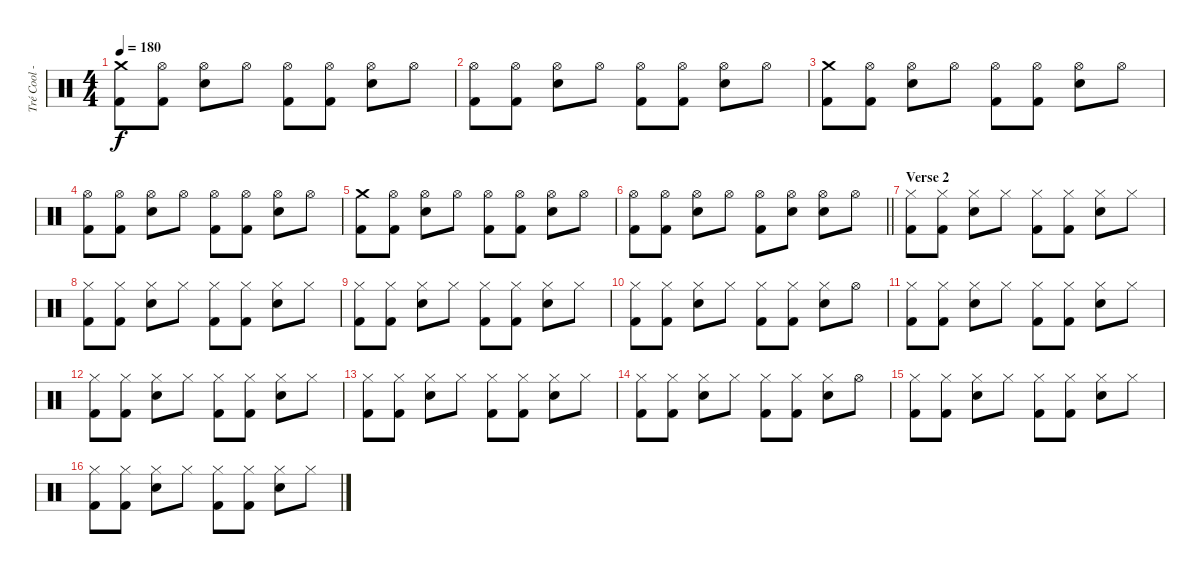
\track ("Tré Cool - Drums" "Tré Cool -") {instrument percussion}
\staff {score}
\articulation defaults
\ts (4 4)
\tempo 180
\clef neutral
\ks c
("Crash medium (hit)" "Kick (hit) 2").8{dy f} ("Hi-Hat (open)" "Kick (hit) 2").8 ("Hi-Hat (open)" "Electric Snare (hit)").8 "Hi-Hat (open)".8 ("Hi-Hat (open)" "Kick (hit) 2").8 ("Hi-Hat (open)" "Kick (hit) 2").8 ("Hi-Hat (open)" "Electric Snare (hit)").8 "Hi-Hat (open)".8 |
("Hi-Hat (open)" "Kick (hit) 2").8 ("Hi-Hat (open)" "Kick (hit) 2").8 ("Hi-Hat (open)" "Electric Snare (hit)").8 "Hi-Hat (open)".8 ("Hi-Hat (open)" "Kick (hit) 2").8 ("Hi-Hat (open)" "Kick (hit) 2").8 ("Hi-Hat (open)" "Electric Snare (hit)").8 "Hi-Hat (open)".8 |
("Crash medium (hit)" "Kick (hit) 2").8 ("Hi-Hat (open)" "Kick (hit) 2").8 ("Hi-Hat (open)" "Electric Snare (hit)").8 "Hi-Hat (open)".8 ("Hi-Hat (open)" "Kick (hit) 2").8 ("Hi-Hat (open)" "Kick (hit) 2").8 ("Hi-Hat (open)" "Electric Snare (hit)").8 "Hi-Hat (open)".8 |
("Hi-Hat (open)" "Kick (hit) 2").8 ("Hi-Hat (open)" "Kick (hit) 2").8 ("Hi-Hat (open)" "Electric Snare (hit)").8 "Hi-Hat (open)".8 ("Hi-Hat (open)" "Kick (hit) 2").8 ("Hi-Hat (open)" "Kick (hit) 2").8 ("Hi-Hat (open)" "Electric Snare (hit)").8 "Hi-Hat (open)".8 |
("Crash medium (hit)" "Kick (hit) 2").8 ("Hi-Hat (open)" "Kick (hit) 2").8 ("Hi-Hat (open)" "Electric Snare (hit)").8 "Hi-Hat (open)".8 ("Hi-Hat (open)" "Kick (hit) 2").8 ("Hi-Hat (open)" "Kick (hit) 2").8 ("Hi-Hat (open)" "Electric Snare (hit)").8 "Hi-Hat (open)".8 |
\barLineRight lightlight
("Hi-Hat (open)" "Kick (hit) 2").8 ("Hi-Hat (open)" "Kick (hit) 2").8 ("Hi-Hat (open)" "Electric Snare (hit)").8 "Hi-Hat (open)".8 ("Hi-Hat (open)" "Kick (hit) 2").8 ("Hi-Hat (open)" "Electric Snare (hit)").8 ("Hi-Hat (open)" "Electric Snare (hit)").8 "Hi-Hat (open)".8 |
\section ("" "Verse 2")
("Hi-Hat (closed)" "Kick (hit) 2").8{volume 9 balance 3} ("Hi-Hat (closed)" "Kick (hit) 2").8 ("Hi-Hat (closed)" "Electric Snare (hit)").8 "Hi-Hat (closed)".8 ("Hi-Hat (closed)" "Kick (hit) 2").8 ("Hi-Hat (closed)" "Kick (hit) 2").8 ("Hi-Hat (closed)" "Electric Snare (hit)").8 "Hi-Hat (closed)".8 |
("Hi-Hat (closed)" "Kick (hit) 2").8 ("Hi-Hat (closed)" "Kick (hit) 2").8 ("Hi-Hat (closed)" "Electric Snare (hit)").8 "Hi-Hat (closed)".8 ("Hi-Hat (closed)" "Kick (hit) 2").8 ("Hi-Hat (closed)" "Kick (hit) 2").8 ("Hi-Hat (closed)" "Electric Snare (hit)").8 "Hi-Hat (closed)".8 |
("Hi-Hat (closed)" "Kick (hit) 2").8 ("Hi-Hat (closed)" "Kick (hit) 2").8 ("Hi-Hat (closed)" "Electric Snare (hit)").8 "Hi-Hat (closed)".8 ("Hi-Hat (closed)" "Kick (hit) 2").8 ("Hi-Hat (closed)" "Kick (hit) 2").8 ("Hi-Hat (closed)" "Electric Snare (hit)").8 "Hi-Hat (closed)".8 |
("Hi-Hat (closed)" "Kick (hit) 2").8 ("Hi-Hat (closed)" "Kick (hit) 2").8 ("Hi-Hat (closed)" "Electric Snare (hit)").8 "Hi-Hat (closed)".8 ("Hi-Hat (closed)" "Kick (hit) 2").8 ("Hi-Hat (closed)" "Kick (hit) 2").8 ("Hi-Hat (closed)" "Electric Snare (hit)").8 "Hi-Hat (open)".8 |
("Hi-Hat (closed)" "Kick (hit) 2").8 ("Hi-Hat (closed)" "Kick (hit) 2").8 ("Hi-Hat (closed)" "Electric Snare (hit)").8 "Hi-Hat (closed)".8 ("Hi-Hat (closed)" "Kick (hit) 2").8 ("Hi-Hat (closed)" "Kick (hit) 2").8 ("Hi-Hat (closed)" "Electric Snare (hit)").8 "Hi-Hat (closed)".8 |
("Hi-Hat (closed)" "Kick (hit) 2").8 ("Hi-Hat (closed)" "Kick (hit) 2").8 ("Hi-Hat (closed)" "Electric Snare (hit)").8 "Hi-Hat (closed)".8 ("Hi-Hat (closed)" "Kick (hit) 2").8 ("Hi-Hat (closed)" "Kick (hit) 2").8 ("Hi-Hat (closed)" "Electric Snare (hit)").8 "Hi-Hat (closed)".8 |
("Hi-Hat (closed)" "Kick (hit) 2").8 ("Hi-Hat (closed)" "Kick (hit) 2").8 ("Hi-Hat (closed)" "Electric Snare (hit)").8 "Hi-Hat (closed)".8 ("Hi-Hat (closed)" "Kick (hit) 2").8 ("Hi-Hat (closed)" "Kick (hit) 2").8 ("Hi-Hat (closed)" "Electric Snare (hit)").8 "Hi-Hat (closed)".8 |
("Hi-Hat (closed)" "Kick (hit) 2").8 ("Hi-Hat (closed)" "Kick (hit) 2").8 ("Hi-Hat (closed)" "Electric Snare (hit)").8 "Hi-Hat (closed)".8 ("Hi-Hat (closed)" "Kick (hit) 2").8 ("Hi-Hat (closed)" "Kick (hit) 2").8 ("Hi-Hat (closed)" "Electric Snare (hit)").8 "Hi-Hat (open)".8 |
("Hi-Hat (closed)" "Kick (hit) 2").8 ("Hi-Hat (closed)" "Kick (hit) 2").8 ("Hi-Hat (closed)" "Electric Snare (hit)").8 "Hi-Hat (closed)".8 ("Hi-Hat (closed)" "Kick (hit) 2").8 ("Hi-Hat (closed)" "Kick (hit) 2").8 ("Hi-Hat (closed)" "Electric Snare (hit)").8 "Hi-Hat (closed)".8 |
("Hi-Hat (closed)" "Kick (hit) 2").8 ("Hi-Hat (closed)" "Kick (hit) 2").8 ("Hi-Hat (closed)" "Electric Snare (hit)").8 "Hi-Hat (closed)".8 ("Hi-Hat (closed)" "Kick (hit) 2").8 ("Hi-Hat (closed)" "Kick (hit) 2").8 ("Hi-Hat (closed)" "Electric Snare (hit)").8 "Hi-Hat (closed)".8
